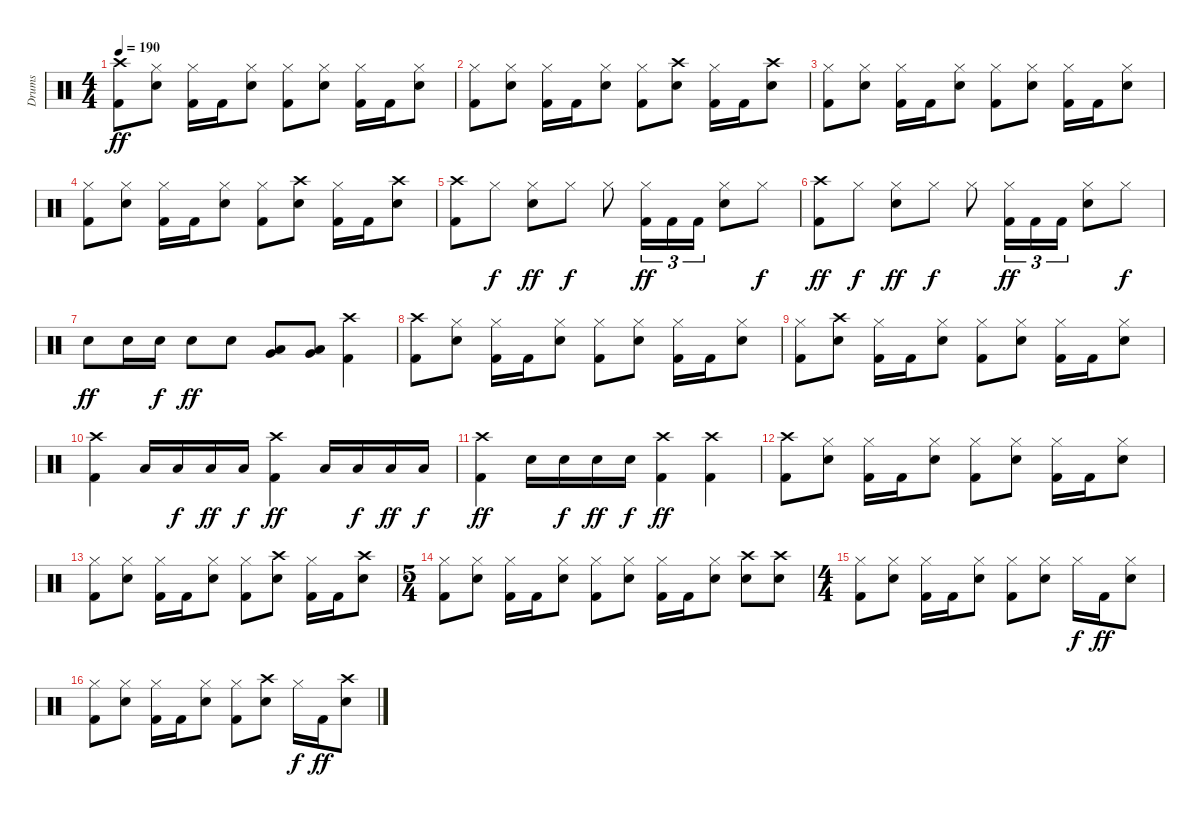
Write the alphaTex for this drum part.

\track ("Drums" "Drums") {instrument percussion}
\staff {score}
\articulation defaults
\ts (4 4)
\tempo 190
\clef neutral
\ks c
("Crash high (hit)" "Kick (hit) 2").8{dy ff} ("Hi-Hat (closed)" "Snare (hit) 2").8 ("Hi-Hat (closed)" "Kick (hit) 2").16 "Kick (hit) 2".16 ("Hi-Hat (closed)" "Snare (hit) 2").8 ("Hi-Hat (closed)" "Kick (hit) 2").8 ("Hi-Hat (closed)" "Snare (hit) 2").8 ("Hi-Hat (closed)" "Kick (hit) 2").16 "Kick (hit) 2".16 ("Hi-Hat (closed)" "Snare (hit) 2").8 |
("Hi-Hat (closed)" "Kick (hit) 2").8 ("Hi-Hat (closed)" "Snare (hit) 2").8 ("Hi-Hat (closed)" "Kick (hit) 2").16 "Kick (hit) 2".16 ("Hi-Hat (closed)" "Snare (hit) 2").8 ("Hi-Hat (closed)" "Kick (hit) 2").8 ("Crash high (hit)" "Snare (hit) 2").8 ("Hi-Hat (closed)" "Kick (hit) 2").16 "Kick (hit) 2".16 ("Crash high (hit)" "Snare (hit) 2").8 |
("Hi-Hat (closed)" "Kick (hit) 2").8 ("Hi-Hat (closed)" "Snare (hit) 2").8 ("Hi-Hat (closed)" "Kick (hit) 2").16 "Kick (hit) 2".16 ("Hi-Hat (closed)" "Snare (hit) 2").8 ("Hi-Hat (closed)" "Kick (hit) 2").8 ("Hi-Hat (closed)" "Snare (hit) 2").8 ("Hi-Hat (closed)" "Kick (hit) 2").16 "Kick (hit) 2".16 ("Hi-Hat (closed)" "Snare (hit) 2").8 |
("Hi-Hat (closed)" "Kick (hit) 2").8 ("Hi-Hat (closed)" "Snare (hit) 2").8 ("Hi-Hat (closed)" "Kick (hit) 2").16 "Kick (hit) 2".16 ("Hi-Hat (closed)" "Snare (hit) 2").8 ("Hi-Hat (closed)" "Kick (hit) 2").8 ("Crash high (hit)" "Snare (hit) 2").8 ("Hi-Hat (closed)" "Kick (hit) 2").16 "Kick (hit) 2".16 ("Crash high (hit)" "Snare (hit) 2").8 |
("Crash high (hit)" "Kick (hit) 2").8 "Hi-Hat (closed)".8{dy f} ("Hi-Hat (closed)" "Snare (hit) 2").8{dy ff} "Hi-Hat (closed)".8{dy f} "Hi-Hat (closed)".8 ("Hi-Hat (closed)" "Kick (hit) 2").16{tu (3 2) dy ff} "Kick (hit) 2".16{tu (3 2)} "Kick (hit) 2".16{tu (3 2)} ("Hi-Hat (closed)" "Snare (hit) 2").8 "Hi-Hat (closed)".8{dy f} |
("Crash high (hit)" "Kick (hit) 2").8{dy ff} "Hi-Hat (closed)".8{dy f} ("Hi-Hat (closed)" "Snare (hit) 2").8{dy ff} "Hi-Hat (closed)".8{dy f} "Hi-Hat (closed)".8 ("Hi-Hat (closed)" "Kick (hit) 2").16{tu (3 2) dy ff} "Kick (hit) 2".16{tu (3 2)} "Kick (hit) 2".16{tu (3 2)} ("Hi-Hat (closed)" "Snare (hit) 2").8 "Hi-Hat (closed)".8{dy f} |
"Snare (hit) 2".8{dy ff} "Snare (hit) 2".16 "Snare (hit) 2".16{dy f} "Snare (hit) 2".8{dy ff} "Snare (hit) 2".8 ("Very Low Tom (hit)" "Low Floor Tom (hit)").8 ("Very Low Tom (hit)" "Low Floor Tom (hit)").8 ("Crash high (hit)" "Kick (hit) 2").4 |
("Crash high (hit)" "Kick (hit) 2").8 ("Hi-Hat (closed)" "Snare (hit) 2").8 ("Hi-Hat (closed)" "Kick (hit) 2").16 "Kick (hit) 2".16 ("Hi-Hat (closed)" "Snare (hit) 2").8 ("Hi-Hat (closed)" "Kick (hit) 2").8 ("Hi-Hat (closed)" "Snare (hit) 2").8 ("Hi-Hat (closed)" "Kick (hit) 2").16 "Kick (hit) 2".16 ("Hi-Hat (closed)" "Snare (hit) 2").8 |
("Hi-Hat (closed)" "Kick (hit) 2").8 ("Crash high (hit)" "Snare (hit) 2").8 ("Hi-Hat (closed)" "Kick (hit) 2").16 "Kick (hit) 2".16 ("Hi-Hat (closed)" "Snare (hit) 2").8 ("Hi-Hat (closed)" "Kick (hit) 2").8 ("Hi-Hat (closed)" "Snare (hit) 2").8 ("Hi-Hat (closed)" "Kick (hit) 2").16 "Kick (hit) 2".16 ("Hi-Hat (closed)" "Snare (hit) 2").8 |
("Crash high (hit)" "Kick (hit) 2").4 "Low Tom (hit)".16 "Low Tom (hit)".16{dy f} "Low Tom (hit)".16{dy ff} "Low Tom (hit)".16{dy f} ("Crash high (hit)" "Kick (hit) 2").4{dy ff} "Low Floor Tom (hit)".16 "Low Floor Tom (hit)".16{dy f} "Low Floor Tom (hit)".16{dy ff} "Low Floor Tom (hit)".16{dy f} |
("Crash high (hit)" "Kick (hit) 2").4{dy ff} "Snare (hit) 2".16 "Snare (hit) 2".16{dy f} "Snare (hit) 2".16{dy ff} "Snare (hit) 2".16{dy f} ("Crash high (hit)" "Kick (hit) 2").4{dy ff} ("Crash high (hit)" "Kick (hit) 2").4 |
("Crash high (hit)" "Kick (hit) 2").8 ("Hi-Hat (closed)" "Snare (hit) 2").8 ("Hi-Hat (closed)" "Kick (hit) 2").16 "Kick (hit) 2".16 ("Hi-Hat (closed)" "Snare (hit) 2").8 ("Hi-Hat (closed)" "Kick (hit) 2").8 ("Hi-Hat (closed)" "Snare (hit) 2").8 ("Hi-Hat (closed)" "Kick (hit) 2").16 "Kick (hit) 2".16 ("Hi-Hat (closed)" "Snare (hit) 2").8 |
("Hi-Hat (closed)" "Kick (hit) 2").8 ("Hi-Hat (closed)" "Snare (hit) 2").8 ("Hi-Hat (closed)" "Kick (hit) 2").16 "Kick (hit) 2".16 ("Hi-Hat (closed)" "Snare (hit) 2").8 ("Hi-Hat (closed)" "Kick (hit) 2").8 ("Crash high (hit)" "Snare (hit) 2").8 ("Hi-Hat (closed)" "Kick (hit) 2").16 "Kick (hit) 2".16 ("Crash high (hit)" "Snare (hit) 2").8 |
\ts (5 4)
("Hi-Hat (closed)" "Kick (hit) 2").8 ("Hi-Hat (closed)" "Snare (hit) 2").8 ("Hi-Hat (closed)" "Kick (hit) 2").16 "Kick (hit) 2".16 ("Hi-Hat (closed)" "Snare (hit) 2").8 ("Hi-Hat (closed)" "Kick (hit) 2").8 ("Hi-Hat (closed)" "Snare (hit) 2").8 ("Hi-Hat (closed)" "Kick (hit) 2").16 "Kick (hit) 2".16 ("Hi-Hat (closed)" "Snare (hit) 2").8 ("Crash high (hit)" "Snare (hit) 2").8 ("Crash high (hit)" "Snare (hit) 2").8 |
\ts (4 4)
("Hi-Hat (closed)" "Kick (hit) 2").8 ("Hi-Hat (closed)" "Snare (hit) 2").8 ("Hi-Hat (closed)" "Kick (hit) 2").16 "Kick (hit) 2".16 ("Hi-Hat (closed)" "Snare (hit) 2").8 ("Hi-Hat (closed)" "Kick (hit) 2").8 ("Hi-Hat (closed)" "Snare (hit) 2").8 "Hi-Hat (closed)".16{dy f} "Kick (hit) 2".16{dy ff} ("Hi-Hat (closed)" "Snare (hit) 2").8 |
("Hi-Hat (closed)" "Kick (hit) 2").8 ("Hi-Hat (closed)" "Snare (hit) 2").8 ("Hi-Hat (closed)" "Kick (hit) 2").16 "Kick (hit) 2".16 ("Hi-Hat (closed)" "Snare (hit) 2").8 ("Hi-Hat (closed)" "Kick (hit) 2").8 ("Crash high (hit)" "Snare (hit) 2").8 "Hi-Hat (closed)".16{dy f} "Kick (hit) 2".16{dy ff} ("Crash high (hit)" "Snare (hit) 2").8
